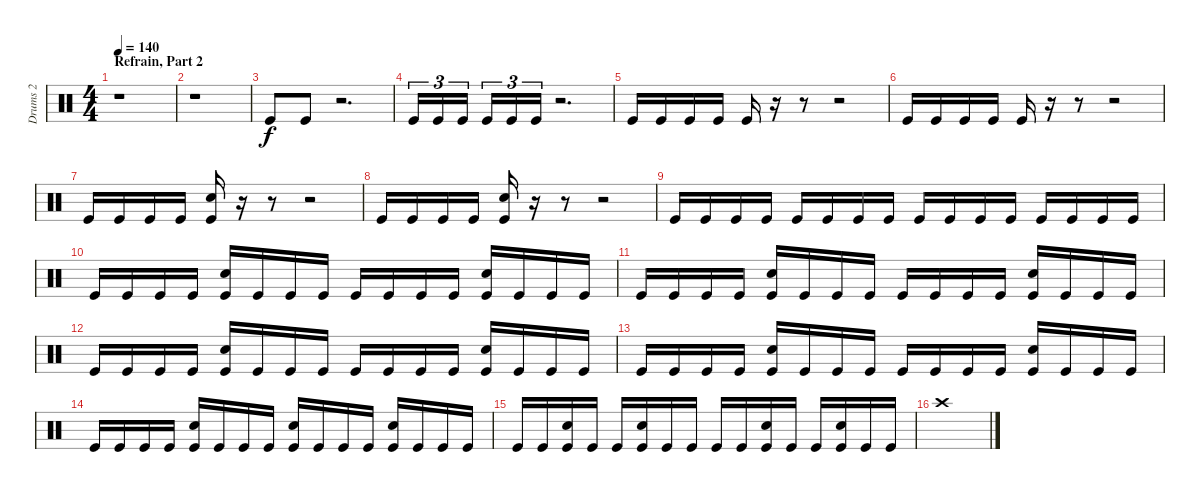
\track ("Drums 2" "Drums 2") {instrument percussion}
\staff {score}
\articulation defaults
\ts (4 4)
\section ("" "Refrain, Part 2")
\tempo 140
\clef neutral
\ks c
r.1{dy f} |
r.1 |
"Kick (hit)".8 "Kick (hit)".8 r.2{d} |
"Kick (hit)".16{tu (3 2)} "Kick (hit)".16{tu (3 2)} "Kick (hit)".16{tu (3 2)} "Kick (hit)".16{tu (3 2)} "Kick (hit)".16{tu (3 2)} "Kick (hit)".16{tu (3 2)} r.2{d} |
"Kick (hit)".16 "Kick (hit)".16 "Kick (hit)".16 "Kick (hit)".16 "Kick (hit)".16 r.16 r.8 r.2 |
"Kick (hit)".16 "Kick (hit)".16 "Kick (hit)".16 "Kick (hit)".16 "Kick (hit)".16 r.16 r.8 r.2 |
"Kick (hit)".16 "Kick (hit)".16 "Kick (hit)".16 "Kick (hit)".16 ("Snare (hit) 2" "Kick (hit)").16 r.16 r.8 r.2 |
"Kick (hit)".16 "Kick (hit)".16 "Kick (hit)".16 "Kick (hit)".16 ("Snare (hit) 2" "Kick (hit)").16 r.16 r.8 r.2 |
"Kick (hit)".16 "Kick (hit)".16 "Kick (hit)".16 "Kick (hit)".16 "Kick (hit)".16 "Kick (hit)".16 "Kick (hit)".16 "Kick (hit)".16 "Kick (hit)".16 "Kick (hit)".16 "Kick (hit)".16 "Kick (hit)".16 "Kick (hit)".16 "Kick (hit)".16 "Kick (hit)".16 "Kick (hit)".16 |
"Kick (hit)".16 "Kick (hit)".16 "Kick (hit)".16 "Kick (hit)".16 ("Snare (hit) 2" "Kick (hit)").16 "Kick (hit)".16 "Kick (hit)".16 "Kick (hit)".16 "Kick (hit)".16 "Kick (hit)".16 "Kick (hit)".16 "Kick (hit)".16 ("Snare (hit) 2" "Kick (hit)").16 "Kick (hit)".16 "Kick (hit)".16 "Kick (hit)".16 |
"Kick (hit)".16 "Kick (hit)".16 "Kick (hit)".16 "Kick (hit)".16 ("Snare (hit) 2" "Kick (hit)").16 "Kick (hit)".16 "Kick (hit)".16 "Kick (hit)".16 "Kick (hit)".16 "Kick (hit)".16 "Kick (hit)".16 "Kick (hit)".16 ("Snare (hit) 2" "Kick (hit)").16 "Kick (hit)".16 "Kick (hit)".16 "Kick (hit)".16 |
"Kick (hit)".16 "Kick (hit)".16 "Kick (hit)".16 "Kick (hit)".16 ("Snare (hit) 2" "Kick (hit)").16 "Kick (hit)".16 "Kick (hit)".16 "Kick (hit)".16 "Kick (hit)".16 "Kick (hit)".16 "Kick (hit)".16 "Kick (hit)".16 ("Snare (hit) 2" "Kick (hit)").16 "Kick (hit)".16 "Kick (hit)".16 "Kick (hit)".16 |
"Kick (hit)".16 "Kick (hit)".16 "Kick (hit)".16 "Kick (hit)".16 ("Snare (hit) 2" "Kick (hit)").16 "Kick (hit)".16 "Kick (hit)".16 "Kick (hit)".16 "Kick (hit)".16 "Kick (hit)".16 "Kick (hit)".16 "Kick (hit)".16 ("Snare (hit) 2" "Kick (hit)").16 "Kick (hit)".16 "Kick (hit)".16 "Kick (hit)".16 |
"Kick (hit)".16 "Kick (hit)".16 "Kick (hit)".16 "Kick (hit)".16 ("Snare (hit) 2" "Kick (hit)").16 "Kick (hit)".16 "Kick (hit)".16 "Kick (hit)".16 ("Snare (hit) 2" "Kick (hit)").16 "Kick (hit)".16 "Kick (hit)".16 "Kick (hit)".16 ("Snare (hit) 2" "Kick (hit)").16 "Kick (hit)".16 "Kick (hit)".16 "Kick (hit)".16 |
"Kick (hit)".16 "Kick (hit)".16 ("Snare (hit) 2" "Kick (hit)").16 "Kick (hit)".16 "Kick (hit)".16 ("Snare (hit) 2" "Kick (hit)").16 "Kick (hit)".16 "Kick (hit)".16 "Kick (hit)".16 "Kick (hit)".16 ("Snare (hit) 2" "Kick (hit)").16 "Kick (hit)".16 "Kick (hit)".16 ("Snare (hit) 2" "Kick (hit)").16 "Kick (hit)".16 "Kick (hit)".16 |
"Crash high (hit)".1
